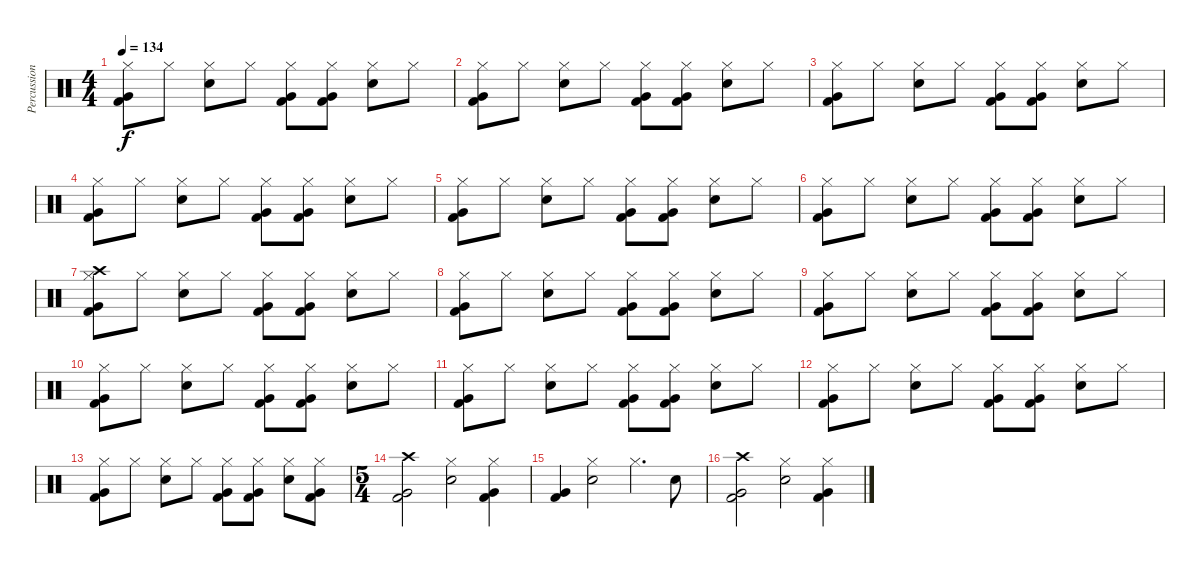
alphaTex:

\track ("Percussion" "Percussion") {instrument percussion}
\staff {score}
\articulation defaults
\ts (4 4)
\tempo 134
\clef neutral
\ks c
("Hi-Hat (closed)" "Very Low Tom (hit)" "Kick (hit) 2").8{dy f} "Hi-Hat (closed)".8 ("Hi-Hat (closed)" "Electric Snare (hit)").8 "Hi-Hat (closed)".8 ("Hi-Hat (closed)" "Very Low Tom (hit)" "Kick (hit) 2").8 ("Hi-Hat (closed)" "Very Low Tom (hit)" "Kick (hit) 2").8 ("Hi-Hat (closed)" "Electric Snare (hit)").8 "Hi-Hat (closed)".8 |
("Hi-Hat (closed)" "Very Low Tom (hit)" "Kick (hit) 2").8 "Hi-Hat (closed)".8 ("Hi-Hat (closed)" "Electric Snare (hit)").8 "Hi-Hat (closed)".8 ("Hi-Hat (closed)" "Very Low Tom (hit)" "Kick (hit) 2").8 ("Hi-Hat (closed)" "Very Low Tom (hit)" "Kick (hit) 2").8 ("Hi-Hat (closed)" "Electric Snare (hit)").8 "Hi-Hat (closed)".8 |
("Hi-Hat (closed)" "Very Low Tom (hit)" "Kick (hit) 2").8 "Hi-Hat (closed)".8 ("Hi-Hat (closed)" "Electric Snare (hit)").8 "Hi-Hat (closed)".8 ("Hi-Hat (closed)" "Very Low Tom (hit)" "Kick (hit) 2").8 ("Hi-Hat (closed)" "Very Low Tom (hit)" "Kick (hit) 2").8 ("Hi-Hat (closed)" "Electric Snare (hit)").8 "Hi-Hat (closed)".8 |
("Hi-Hat (closed)" "Very Low Tom (hit)" "Kick (hit) 2").8 "Hi-Hat (closed)".8 ("Hi-Hat (closed)" "Electric Snare (hit)").8 "Hi-Hat (closed)".8 ("Hi-Hat (closed)" "Very Low Tom (hit)" "Kick (hit) 2").8 ("Hi-Hat (closed)" "Very Low Tom (hit)" "Kick (hit) 2").8 ("Hi-Hat (closed)" "Electric Snare (hit)").8 "Hi-Hat (closed)".8 |
("Hi-Hat (closed)" "Very Low Tom (hit)" "Kick (hit) 2").8 "Hi-Hat (closed)".8 ("Hi-Hat (closed)" "Electric Snare (hit)").8 "Hi-Hat (closed)".8 ("Hi-Hat (closed)" "Very Low Tom (hit)" "Kick (hit) 2").8 ("Hi-Hat (closed)" "Very Low Tom (hit)" "Kick (hit) 2").8 ("Hi-Hat (closed)" "Electric Snare (hit)").8 "Hi-Hat (closed)".8 |
("Hi-Hat (closed)" "Very Low Tom (hit)" "Kick (hit) 2").8 "Hi-Hat (closed)".8 ("Hi-Hat (closed)" "Electric Snare (hit)").8 "Hi-Hat (closed)".8 ("Hi-Hat (closed)" "Very Low Tom (hit)" "Kick (hit) 2").8 ("Hi-Hat (closed)" "Very Low Tom (hit)" "Kick (hit) 2").8 ("Hi-Hat (closed)" "Electric Snare (hit)").8 "Hi-Hat (closed)".8 |
("Crash high (hit)" "Hi-Hat (closed)" "Very Low Tom (hit)" "Kick (hit) 2").8 "Hi-Hat (closed)".8 ("Hi-Hat (closed)" "Electric Snare (hit)").8 "Hi-Hat (closed)".8 ("Hi-Hat (closed)" "Very Low Tom (hit)" "Kick (hit) 2").8 ("Hi-Hat (closed)" "Very Low Tom (hit)" "Kick (hit) 2").8 ("Hi-Hat (closed)" "Electric Snare (hit)").8 "Hi-Hat (closed)".8 |
("Hi-Hat (closed)" "Very Low Tom (hit)" "Kick (hit) 2").8 "Hi-Hat (closed)".8 ("Hi-Hat (closed)" "Electric Snare (hit)").8 "Hi-Hat (closed)".8 ("Hi-Hat (closed)" "Very Low Tom (hit)" "Kick (hit) 2").8 ("Hi-Hat (closed)" "Very Low Tom (hit)" "Kick (hit) 2").8 ("Hi-Hat (closed)" "Electric Snare (hit)").8 "Hi-Hat (closed)".8 |
("Hi-Hat (closed)" "Very Low Tom (hit)" "Kick (hit) 2").8 "Hi-Hat (closed)".8 ("Hi-Hat (closed)" "Electric Snare (hit)").8 "Hi-Hat (closed)".8 ("Hi-Hat (closed)" "Very Low Tom (hit)" "Kick (hit) 2").8 ("Hi-Hat (closed)" "Very Low Tom (hit)" "Kick (hit) 2").8 ("Hi-Hat (closed)" "Electric Snare (hit)").8 "Hi-Hat (closed)".8 |
("Hi-Hat (closed)" "Very Low Tom (hit)" "Kick (hit) 2").8 "Hi-Hat (closed)".8 ("Hi-Hat (closed)" "Electric Snare (hit)").8 "Hi-Hat (closed)".8 ("Hi-Hat (closed)" "Very Low Tom (hit)" "Kick (hit) 2").8 ("Hi-Hat (closed)" "Very Low Tom (hit)" "Kick (hit) 2").8 ("Hi-Hat (closed)" "Electric Snare (hit)").8 "Hi-Hat (closed)".8 |
("Hi-Hat (closed)" "Very Low Tom (hit)" "Kick (hit) 2").8 "Hi-Hat (closed)".8 ("Hi-Hat (closed)" "Electric Snare (hit)").8 "Hi-Hat (closed)".8 ("Hi-Hat (closed)" "Very Low Tom (hit)" "Kick (hit) 2").8 ("Hi-Hat (closed)" "Very Low Tom (hit)" "Kick (hit) 2").8 ("Hi-Hat (closed)" "Electric Snare (hit)").8 "Hi-Hat (closed)".8 |
("Hi-Hat (closed)" "Very Low Tom (hit)" "Kick (hit) 2").8 "Hi-Hat (closed)".8 ("Hi-Hat (closed)" "Electric Snare (hit)").8 "Hi-Hat (closed)".8 ("Hi-Hat (closed)" "Very Low Tom (hit)" "Kick (hit) 2").8 ("Hi-Hat (closed)" "Very Low Tom (hit)" "Kick (hit) 2").8 ("Hi-Hat (closed)" "Electric Snare (hit)").8 "Hi-Hat (closed)".8 |
("Hi-Hat (closed)" "Very Low Tom (hit)" "Kick (hit) 2").8 "Hi-Hat (closed)".8 ("Hi-Hat (closed)" "Electric Snare (hit)").8 "Hi-Hat (closed)".8 ("Hi-Hat (closed)" "Very Low Tom (hit)" "Kick (hit) 2").8 ("Hi-Hat (closed)" "Very Low Tom (hit)" "Kick (hit) 2").8 ("Hi-Hat (closed)" "Electric Snare (hit)").8 ("Hi-Hat (closed)" "Very Low Tom (hit)" "Kick (hit) 2").8 |
\ts (5 4)
("Crash high (hit)" "Very Low Tom (hit)" "Kick (hit) 2").2 ("Hi-Hat (closed)" "Electric Snare (hit)").2 ("Hi-Hat (closed)" "Very Low Tom (hit)" "Kick (hit) 2").4 |
("Very Low Tom (hit)" "Kick (hit) 2").4 ("Hi-Hat (closed)" "Electric Snare (hit)").2 "Hi-Hat (closed)".4{d} "Electric Snare (hit)".8 |
("Crash high (hit)" "Very Low Tom (hit)" "Kick (hit) 2").2 ("Hi-Hat (closed)" "Electric Snare (hit)").2 ("Hi-Hat (closed)" "Very Low Tom (hit)" "Kick (hit) 2").4
